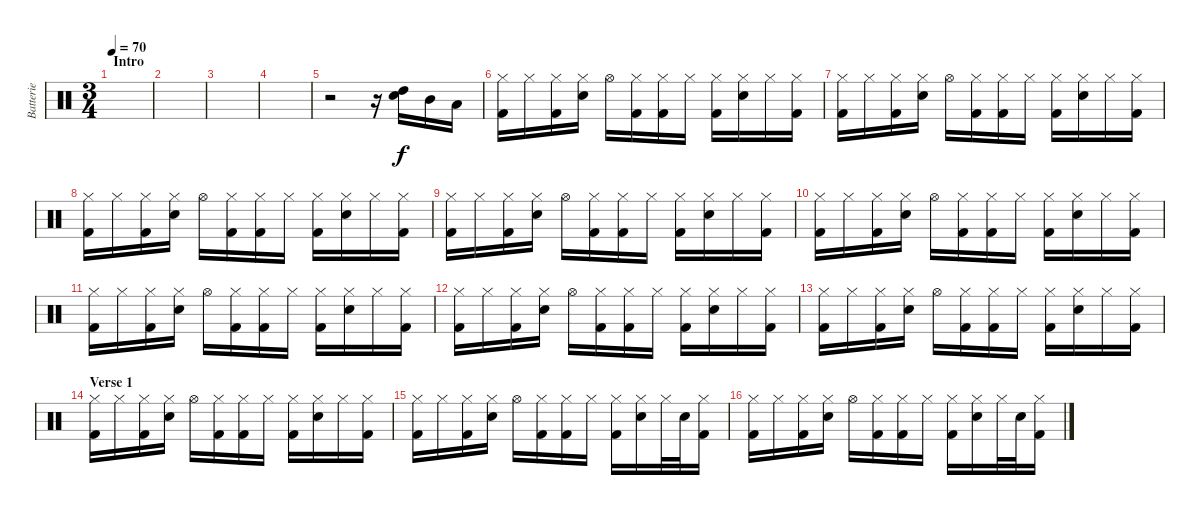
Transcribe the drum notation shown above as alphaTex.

\track ("Batterie" "Batterie") {instrument percussion}
\staff {score}
\articulation defaults
\ts (3 4)
\section ("" "Intro")
\tempo 70
\clef neutral
\ks c
|
|
|
|
r.2 r.16 ("High Tom (hit)" "Electric Snare (hit)").16 "Mid Tom (hit)".16 "Low Tom (hit)".16 |
("Kick (hit) 2" "Hi-Hat (closed)").16 "Hi-Hat (closed)".16 ("Kick (hit) 2" "Hi-Hat (closed)").16 ("Electric Snare (hit)" "Hi-Hat (closed)").16 "Hi-Hat (open)".16 ("Kick (hit) 2" "Hi-Hat (closed)").16 ("Kick (hit) 2" "Hi-Hat (closed)").16 "Hi-Hat (closed)".16 ("Kick (hit) 2" "Hi-Hat (closed)").16 ("Electric Snare (hit)" "Hi-Hat (closed)").16 "Hi-Hat (closed)".16 ("Kick (hit) 2" "Hi-Hat (closed)").16 |
("Kick (hit) 2" "Hi-Hat (closed)").16 "Hi-Hat (closed)".16 ("Kick (hit) 2" "Hi-Hat (closed)").16 ("Electric Snare (hit)" "Hi-Hat (closed)").16 "Hi-Hat (open)".16 ("Kick (hit) 2" "Hi-Hat (closed)").16 ("Kick (hit) 2" "Hi-Hat (closed)").16 "Hi-Hat (closed)".16 ("Kick (hit) 2" "Hi-Hat (closed)").16 ("Electric Snare (hit)" "Hi-Hat (closed)").16 "Hi-Hat (closed)".16 ("Kick (hit) 2" "Hi-Hat (closed)").16 |
("Kick (hit) 2" "Hi-Hat (closed)").16 "Hi-Hat (closed)".16 ("Kick (hit) 2" "Hi-Hat (closed)").16 ("Electric Snare (hit)" "Hi-Hat (closed)").16 "Hi-Hat (open)".16 ("Kick (hit) 2" "Hi-Hat (closed)").16 ("Kick (hit) 2" "Hi-Hat (closed)").16 "Hi-Hat (closed)".16 ("Kick (hit) 2" "Hi-Hat (closed)").16 ("Electric Snare (hit)" "Hi-Hat (closed)").16 "Hi-Hat (closed)".16 ("Kick (hit) 2" "Hi-Hat (closed)").16 |
("Kick (hit) 2" "Hi-Hat (closed)").16 "Hi-Hat (closed)".16 ("Kick (hit) 2" "Hi-Hat (closed)").16 ("Electric Snare (hit)" "Hi-Hat (closed)").16 "Hi-Hat (open)".16 ("Kick (hit) 2" "Hi-Hat (closed)").16 ("Kick (hit) 2" "Hi-Hat (closed)").16 "Hi-Hat (closed)".16 ("Kick (hit) 2" "Hi-Hat (closed)").16 ("Electric Snare (hit)" "Hi-Hat (closed)").16 "Hi-Hat (closed)".16 ("Kick (hit) 2" "Hi-Hat (closed)").16 |
("Kick (hit) 2" "Hi-Hat (closed)").16 "Hi-Hat (closed)".16 ("Kick (hit) 2" "Hi-Hat (closed)").16 ("Electric Snare (hit)" "Hi-Hat (closed)").16 "Hi-Hat (open)".16 ("Kick (hit) 2" "Hi-Hat (closed)").16 ("Kick (hit) 2" "Hi-Hat (closed)").16 "Hi-Hat (closed)".16 ("Kick (hit) 2" "Hi-Hat (closed)").16 ("Electric Snare (hit)" "Hi-Hat (closed)").16 "Hi-Hat (closed)".16 ("Kick (hit) 2" "Hi-Hat (closed)").16 |
("Kick (hit) 2" "Hi-Hat (closed)").16 "Hi-Hat (closed)".16 ("Kick (hit) 2" "Hi-Hat (closed)").16 ("Electric Snare (hit)" "Hi-Hat (closed)").16 "Hi-Hat (open)".16 ("Kick (hit) 2" "Hi-Hat (closed)").16 ("Kick (hit) 2" "Hi-Hat (closed)").16 "Hi-Hat (closed)".16 ("Kick (hit) 2" "Hi-Hat (closed)").16 ("Electric Snare (hit)" "Hi-Hat (closed)").16 "Hi-Hat (closed)".16 ("Kick (hit) 2" "Hi-Hat (closed)").16 |
("Kick (hit) 2" "Hi-Hat (closed)").16 "Hi-Hat (closed)".16 ("Kick (hit) 2" "Hi-Hat (closed)").16 ("Electric Snare (hit)" "Hi-Hat (closed)").16 "Hi-Hat (open)".16 ("Kick (hit) 2" "Hi-Hat (closed)").16 ("Kick (hit) 2" "Hi-Hat (closed)").16 "Hi-Hat (closed)".16 ("Kick (hit) 2" "Hi-Hat (closed)").16 ("Electric Snare (hit)" "Hi-Hat (closed)").16 "Hi-Hat (closed)".16 ("Kick (hit) 2" "Hi-Hat (closed)").16 |
("Kick (hit) 2" "Hi-Hat (closed)").16 "Hi-Hat (closed)".16 ("Kick (hit) 2" "Hi-Hat (closed)").16 ("Electric Snare (hit)" "Hi-Hat (closed)").16 "Hi-Hat (open)".16 ("Kick (hit) 2" "Hi-Hat (closed)").16 ("Kick (hit) 2" "Hi-Hat (closed)").16 "Hi-Hat (closed)".16 ("Kick (hit) 2" "Hi-Hat (closed)").16 ("Electric Snare (hit)" "Hi-Hat (closed)").16 "Hi-Hat (closed)".16 ("Kick (hit) 2" "Hi-Hat (closed)").16 |
\section ("" "Verse 1")
("Kick (hit) 2" "Hi-Hat (closed)").16 "Hi-Hat (closed)".16 ("Kick (hit) 2" "Hi-Hat (closed)").16 ("Electric Snare (hit)" "Hi-Hat (closed)").16 "Hi-Hat (open)".16 ("Kick (hit) 2" "Hi-Hat (closed)").16 ("Kick (hit) 2" "Hi-Hat (closed)").16 "Hi-Hat (closed)".16 ("Kick (hit) 2" "Hi-Hat (closed)").16 ("Electric Snare (hit)" "Hi-Hat (closed)").16 "Hi-Hat (closed)".16 ("Kick (hit) 2" "Hi-Hat (closed)").16 |
("Kick (hit) 2" "Hi-Hat (closed)").16 "Hi-Hat (closed)".16 ("Kick (hit) 2" "Hi-Hat (closed)").16 ("Electric Snare (hit)" "Hi-Hat (closed)").16 "Hi-Hat (open)".16 ("Kick (hit) 2" "Hi-Hat (closed)").16 ("Kick (hit) 2" "Hi-Hat (closed)").16 "Hi-Hat (closed)".16 ("Kick (hit) 2" "Hi-Hat (closed)").16 ("Electric Snare (hit)" "Hi-Hat (closed)").16 "Hi-Hat (closed)".32 "Electric Snare (hit)".32 ("Kick (hit) 2" "Hi-Hat (closed)").16 |
("Kick (hit) 2" "Hi-Hat (closed)").16 "Hi-Hat (closed)".16 ("Kick (hit) 2" "Hi-Hat (closed)").16 ("Electric Snare (hit)" "Hi-Hat (closed)").16 "Hi-Hat (open)".16 ("Kick (hit) 2" "Hi-Hat (closed)").16 ("Kick (hit) 2" "Hi-Hat (closed)").16 "Hi-Hat (closed)".16 ("Kick (hit) 2" "Hi-Hat (closed)").16 ("Electric Snare (hit)" "Hi-Hat (closed)").16 "Hi-Hat (closed)".32 "Electric Snare (hit)".32 ("Kick (hit) 2" "Hi-Hat (closed)").16
